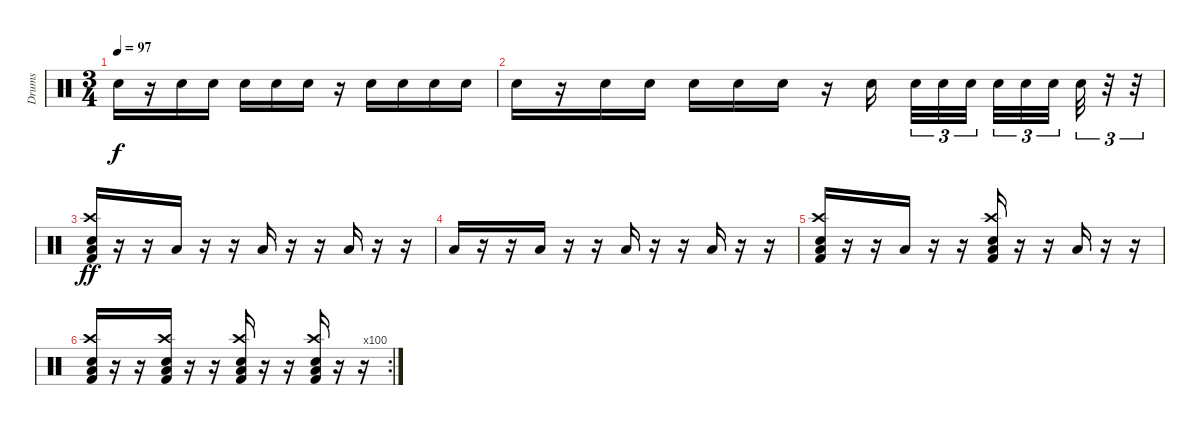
\track ("Drums" "Drums") {instrument percussion}
\staff {score}
\articulation defaults
\ts (3 4)
\tempo 97
\clef neutral
\ks c "Electric Snare (hit)".16{dy f}
r.16 "Electric Snare (hit)".16 "Electric Snare (hit)".16 "Electric Snare (hit)".16 "Electric Snare (hit)".16 "Electric Snare (hit)".16 r.16 "Electric Snare (hit)".16 "Electric Snare (hit)".16 "Electric Snare (hit)".16 "Electric Snare (hit)".16 |
"Electric Snare (hit)".16 r.16 "Electric Snare (hit)".16 "Electric Snare (hit)".16 "Electric Snare (hit)".16 "Electric Snare (hit)".16 "Electric Snare (hit)".16 r.16 "Electric Snare (hit)".16 "Electric Snare (hit)".32{tu (3 2)} "Electric Snare (hit)".32{tu (3 2)} "Electric Snare (hit)".32{tu (3 2)} "Electric Snare (hit)".32{tu (3 2)} "Electric Snare (hit)".32{tu (3 2)} "Electric Snare (hit)".32{tu (3 2)} "Electric Snare (hit)".32{tu (3 2)} r.32{tu (3 2)} r.32{tu (3 2)} |
("Crash high (hit)" "Low Floor Tom (hit)" "Electric Snare (hit)" "Kick (hit) 2").16{dy ff} r.16 r.16 "Low Floor Tom (hit)".16 r.16 r.16 "Low Floor Tom (hit)".16 r.16 r.16 "Low Floor Tom (hit)".16 r.16 r.16 |
"Low Floor Tom (hit)".16 r.16 r.16 "Low Floor Tom (hit)".16 r.16 r.16 "Low Floor Tom (hit)".16 r.16 r.16 "Low Floor Tom (hit)".16 r.16 r.16 |
("Crash high (hit)" "Low Floor Tom (hit)" "Electric Snare (hit)" "Kick (hit) 2").16 r.16 r.16 "Low Floor Tom (hit)".16 r.16 r.16 ("Crash high (hit)" "Low Floor Tom (hit)" "Electric Snare (hit)" "Kick (hit) 2").16 r.16 r.16 "Low Floor Tom (hit)".16 r.16 r.16 |
\rc 100
("Crash high (hit)" "Low Floor Tom (hit)" "Electric Snare (hit)" "Kick (hit) 2").16 r.16 r.16 ("Crash high (hit)" "Low Floor Tom (hit)" "Electric Snare (hit)" "Kick (hit) 2").16 r.16 r.16 ("Crash high (hit)" "Low Floor Tom (hit)" "Electric Snare (hit)" "Kick (hit) 2").16 r.16 r.16 ("Crash high (hit)" "Low Floor Tom (hit)" "Electric Snare (hit)" "Kick (hit) 2").16 r.16 r.16
